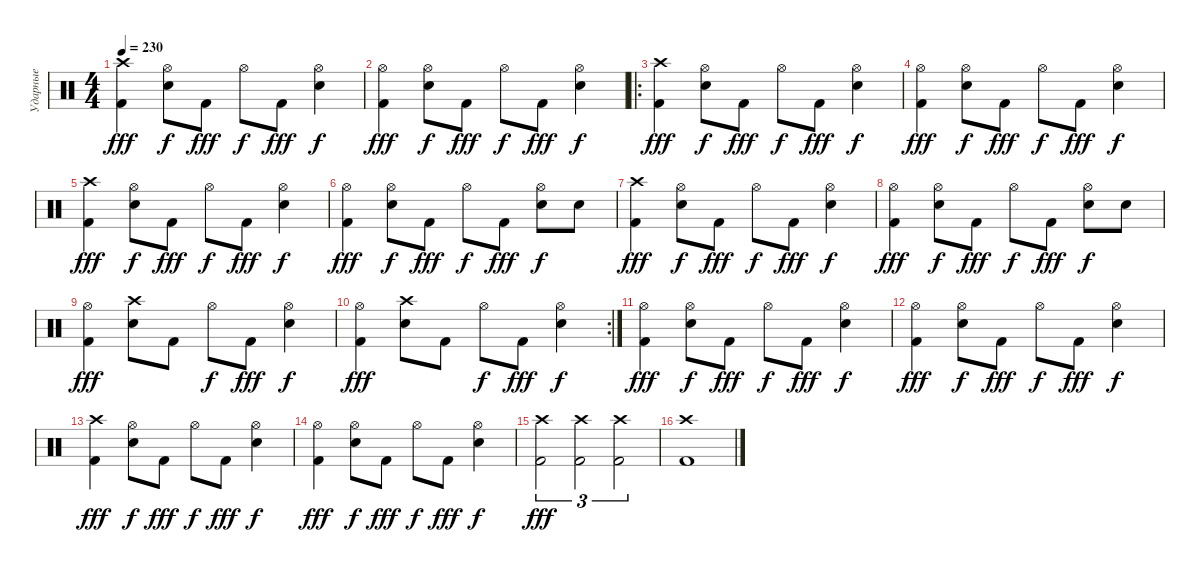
\track ("Ударные" "Ударные") {instrument percussion}
\staff
\articulation defaults
\ts (4 4)
\tempo 230
\clef neutral
\ks c
("Kick (hit) 2" "Crash high (hit)").4{dy fff} ("Snare (hit) 2" "Hi-Hat (open)").8{dy f} "Kick (hit) 2".8{dy fff} "Hi-Hat (open)".8{dy f} "Kick (hit) 2".8{dy fff} ("Snare (hit) 2" "Hi-Hat (open)").4{dy f} |
("Kick (hit) 2" "Hi-Hat (open)").4{dy fff} ("Snare (hit) 2" "Hi-Hat (open)").8{dy f} "Kick (hit) 2".8{dy fff} "Hi-Hat (open)".8{dy f} "Kick (hit) 2".8{dy fff} ("Snare (hit) 2" "Hi-Hat (open)").4{dy f} |
\ro
("Kick (hit) 2" "Crash high (hit)").4{dy fff} ("Snare (hit) 2" "Hi-Hat (open)").8{dy f} "Kick (hit) 2".8{dy fff} "Hi-Hat (open)".8{dy f} "Kick (hit) 2".8{dy fff} ("Snare (hit) 2" "Hi-Hat (open)").4{dy f} |
("Kick (hit) 2" "Hi-Hat (open)").4{dy fff} ("Snare (hit) 2" "Hi-Hat (open)").8{dy f} "Kick (hit) 2".8{dy fff} "Hi-Hat (open)".8{dy f} "Kick (hit) 2".8{dy fff} ("Snare (hit) 2" "Hi-Hat (open)").4{dy f} |
("Kick (hit) 2" "Crash high (hit)").4{dy fff} ("Snare (hit) 2" "Hi-Hat (open)").8{dy f} "Kick (hit) 2".8{dy fff} "Hi-Hat (open)".8{dy f} "Kick (hit) 2".8{dy fff} ("Snare (hit) 2" "Hi-Hat (open)").4{dy f} |
("Kick (hit) 2" "Hi-Hat (open)").4{dy fff} ("Snare (hit) 2" "Hi-Hat (open)").8{dy f} "Kick (hit) 2".8{dy fff} "Hi-Hat (open)".8{dy f} "Kick (hit) 2".8{dy fff} ("Snare (hit) 2" "Hi-Hat (open)").8{dy f} "Snare (hit) 2".8 |
("Kick (hit) 2" "Crash high (hit)").4{dy fff} ("Snare (hit) 2" "Hi-Hat (open)").8{dy f} "Kick (hit) 2".8{dy fff} "Hi-Hat (open)".8{dy f} "Kick (hit) 2".8{dy fff} ("Snare (hit) 2" "Hi-Hat (open)").4{dy f} |
("Kick (hit) 2" "Hi-Hat (open)").4{dy fff} ("Snare (hit) 2" "Hi-Hat (open)").8{dy f} "Kick (hit) 2".8{dy fff} "Hi-Hat (open)".8{dy f} "Kick (hit) 2".8{dy fff} ("Snare (hit) 2" "Hi-Hat (open)").8{dy f} "Snare (hit) 2".8 |
("Kick (hit) 2" "Hi-Hat (open)").4{dy fff} ("Snare (hit) 2" "Crash high (hit)").8 "Kick (hit) 2".8 "Hi-Hat (open)".8{dy f} "Kick (hit) 2".8{dy fff} ("Snare (hit) 2" "Hi-Hat (open)").4{dy f} |
\rc 2
("Kick (hit) 2" "Hi-Hat (open)").4{dy fff} ("Snare (hit) 2" "Crash high (hit)").8 "Kick (hit) 2".8 "Hi-Hat (open)".8{dy f} "Kick (hit) 2".8{dy fff} ("Snare (hit) 2" "Hi-Hat (open)").4{dy f} |
("Kick (hit) 2" "Hi-Hat (open)").4{dy fff} ("Snare (hit) 2" "Hi-Hat (open)").8{dy f} "Kick (hit) 2".8{dy fff} "Hi-Hat (open)".8{dy f} "Kick (hit) 2".8{dy fff} ("Snare (hit) 2" "Hi-Hat (open)").4{dy f} |
("Kick (hit) 2" "Hi-Hat (open)").4{dy fff} ("Snare (hit) 2" "Hi-Hat (open)").8{dy f} "Kick (hit) 2".8{dy fff} "Hi-Hat (open)".8{dy f} "Kick (hit) 2".8{dy fff} ("Snare (hit) 2" "Hi-Hat (open)").4{dy f} |
("Kick (hit) 2" "Crash high (hit)").4{dy fff} ("Snare (hit) 2" "Hi-Hat (open)").8{dy f} "Kick (hit) 2".8{dy fff} "Hi-Hat (open)".8{dy f} "Kick (hit) 2".8{dy fff} ("Snare (hit) 2" "Hi-Hat (open)").4{dy f} |
("Kick (hit) 2" "Hi-Hat (open)").4{dy fff} ("Snare (hit) 2" "Hi-Hat (open)").8{dy f} "Kick (hit) 2".8{dy fff} "Hi-Hat (open)".8{dy f} "Kick (hit) 2".8{dy fff} ("Snare (hit) 2" "Hi-Hat (open)").4{dy f} |
("Kick (hit) 2" "Crash high (hit)").2{tu (3 2) dy fff} ("Kick (hit) 2" "Crash high (hit)").2{tu (3 2)} ("Kick (hit) 2" "Crash high (hit)").2{tu (3 2)} |
("Kick (hit) 2" "Crash high (hit)").1
